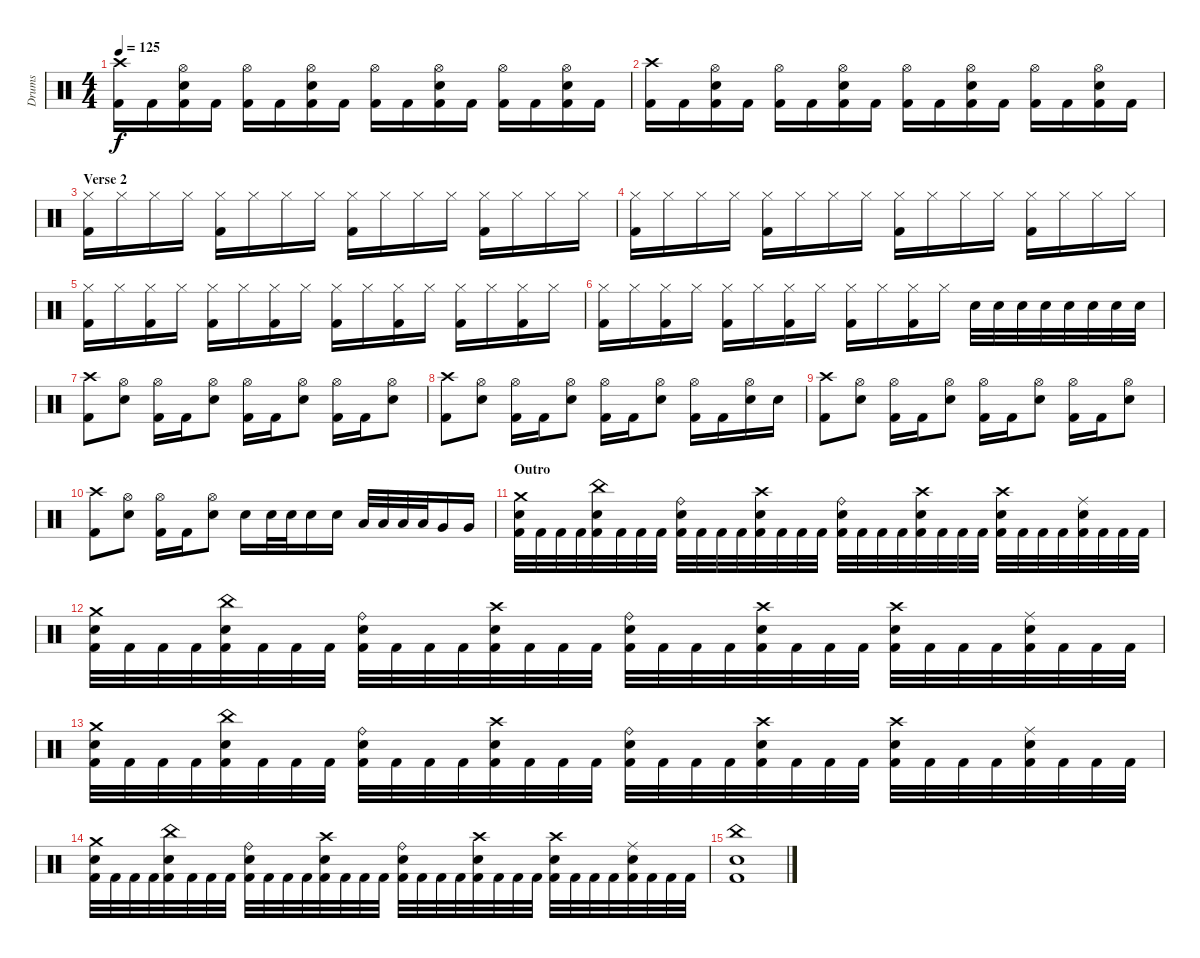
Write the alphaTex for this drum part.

\track ("Drums" "Drums") {instrument percussion}
\staff {score}
\articulation defaults
\ts (4 4)
\tempo 125
\clef neutral
\ks c
("Crash high (hit)" "Kick (hit) 2").16{dy f} "Kick (hit) 2".16 ("Hi-Hat (open)" "Electric Snare (hit)" "Kick (hit) 2").16 "Kick (hit) 2".16 ("Hi-Hat (open)" "Kick (hit) 2").16 "Kick (hit) 2".16 ("Hi-Hat (open)" "Electric Snare (hit)" "Kick (hit) 2").16 "Kick (hit) 2".16 ("Hi-Hat (open)" "Kick (hit) 2").16 "Kick (hit) 2".16 ("Hi-Hat (open)" "Electric Snare (hit)" "Kick (hit) 2").16 "Kick (hit) 2".16 ("Hi-Hat (open)" "Kick (hit) 2").16 "Kick (hit) 2".16 ("Hi-Hat (open)" "Electric Snare (hit)" "Kick (hit) 2").16 "Kick (hit) 2".16 |
("Crash high (hit)" "Kick (hit) 2").16 "Kick (hit) 2".16 ("Hi-Hat (open)" "Electric Snare (hit)" "Kick (hit) 2").16 "Kick (hit) 2".16 ("Hi-Hat (open)" "Kick (hit) 2").16 "Kick (hit) 2".16 ("Hi-Hat (open)" "Electric Snare (hit)" "Kick (hit) 2").16 "Kick (hit) 2".16 ("Hi-Hat (open)" "Kick (hit) 2").16 "Kick (hit) 2".16 ("Hi-Hat (open)" "Electric Snare (hit)" "Kick (hit) 2").16 "Kick (hit) 2".16 ("Hi-Hat (open)" "Kick (hit) 2").16 "Kick (hit) 2".16 ("Hi-Hat (open)" "Electric Snare (hit)" "Kick (hit) 2").16 "Kick (hit) 2".16 |
\section ("" "Verse 2")
("Hi-Hat (closed)" "Kick (hit) 2").16 "Hi-Hat (closed)".16 "Hi-Hat (closed)".16 "Hi-Hat (closed)".16 ("Hi-Hat (closed)" "Kick (hit) 2").16 "Hi-Hat (closed)".16 "Hi-Hat (closed)".16 "Hi-Hat (closed)".16 ("Hi-Hat (closed)" "Kick (hit) 2").16 "Hi-Hat (closed)".16 "Hi-Hat (closed)".16 "Hi-Hat (closed)".16 ("Hi-Hat (closed)" "Kick (hit) 2").16 "Hi-Hat (closed)".16 "Hi-Hat (closed)".16 "Hi-Hat (closed)".16 |
("Hi-Hat (closed)" "Kick (hit) 2").16 "Hi-Hat (closed)".16 "Hi-Hat (closed)".16 "Hi-Hat (closed)".16 ("Hi-Hat (closed)" "Kick (hit) 2").16 "Hi-Hat (closed)".16 "Hi-Hat (closed)".16 "Hi-Hat (closed)".16 ("Hi-Hat (closed)" "Kick (hit) 2").16 "Hi-Hat (closed)".16 "Hi-Hat (closed)".16 "Hi-Hat (closed)".16 ("Hi-Hat (closed)" "Kick (hit) 2").16 "Hi-Hat (closed)".16 "Hi-Hat (closed)".16 "Hi-Hat (closed)".16 |
("Hi-Hat (closed)" "Kick (hit) 2").16 "Hi-Hat (closed)".16 ("Hi-Hat (closed)" "Kick (hit) 2").16 "Hi-Hat (closed)".16 ("Hi-Hat (closed)" "Kick (hit) 2").16 "Hi-Hat (closed)".16 ("Hi-Hat (closed)" "Kick (hit) 2").16 "Hi-Hat (closed)".16 ("Hi-Hat (closed)" "Kick (hit) 2").16 "Hi-Hat (closed)".16 ("Hi-Hat (closed)" "Kick (hit) 2").16 "Hi-Hat (closed)".16 ("Hi-Hat (closed)" "Kick (hit) 2").16 "Hi-Hat (closed)".16 ("Hi-Hat (closed)" "Kick (hit) 2").16 "Hi-Hat (closed)".16 |
("Hi-Hat (closed)" "Kick (hit) 2").16 "Hi-Hat (closed)".16 ("Hi-Hat (closed)" "Kick (hit) 2").16 "Hi-Hat (closed)".16 ("Hi-Hat (closed)" "Kick (hit) 2").16 "Hi-Hat (closed)".16 ("Hi-Hat (closed)" "Kick (hit) 2").16 "Hi-Hat (closed)".16 ("Hi-Hat (closed)" "Kick (hit) 2").16 "Hi-Hat (closed)".16 ("Hi-Hat (closed)" "Kick (hit) 2").16 "Hi-Hat (closed)".16 "Electric Snare (hit)".32 "Electric Snare (hit)".32 "Electric Snare (hit)".32 "Electric Snare (hit)".32 "Electric Snare (hit)".32 "Electric Snare (hit)".32 "Electric Snare (hit)".32 "Electric Snare (hit)".32 |
("Crash high (hit)" "Kick (hit) 2").8 ("Hi-Hat (open)" "Electric Snare (hit)").8 ("Hi-Hat (open)" "Kick (hit) 2").16 "Kick (hit) 2".16 ("Hi-Hat (open)" "Electric Snare (hit)").8 ("Hi-Hat (open)" "Kick (hit) 2").16 "Kick (hit) 2".16 ("Hi-Hat (open)" "Electric Snare (hit)").8 ("Hi-Hat (open)" "Kick (hit) 2").16 "Kick (hit) 2".16 ("Hi-Hat (open)" "Electric Snare (hit)").8 |
("Crash high (hit)" "Kick (hit) 2").8 ("Hi-Hat (open)" "Electric Snare (hit)").8 ("Hi-Hat (open)" "Kick (hit) 2").16 "Kick (hit) 2".16 ("Hi-Hat (open)" "Electric Snare (hit)").8 ("Hi-Hat (open)" "Kick (hit) 2").16 "Kick (hit) 2".16 ("Hi-Hat (open)" "Electric Snare (hit)").8 ("Hi-Hat (open)" "Kick (hit) 2").16 "Kick (hit) 2".16 ("Hi-Hat (open)" "Electric Snare (hit)").16 "Electric Snare (hit)".16 |
("Crash high (hit)" "Kick (hit) 2").8 ("Hi-Hat (open)" "Electric Snare (hit)").8 ("Hi-Hat (open)" "Kick (hit) 2").16 "Kick (hit) 2".16 ("Hi-Hat (open)" "Electric Snare (hit)").8 ("Hi-Hat (open)" "Kick (hit) 2").16 "Kick (hit) 2".16 ("Hi-Hat (open)" "Electric Snare (hit)").8 ("Hi-Hat (open)" "Kick (hit) 2").16 "Kick (hit) 2".16 ("Hi-Hat (open)" "Electric Snare (hit)").8 |
("Crash high (hit)" "Kick (hit) 2").8 ("Hi-Hat (open)" "Electric Snare (hit)").8 ("Hi-Hat (open)" "Kick (hit) 2").16 "Kick (hit) 2".16 ("Hi-Hat (open)" "Electric Snare (hit)").8 "Electric Snare (hit)".16 "Electric Snare (hit)".32 "Electric Snare (hit)".32 "Electric Snare (hit)".16 "Electric Snare (hit)".16 "Low Tom (hit)".32 "Low Tom (hit)".32 "Low Tom (hit)".32 "Low Tom (hit)".32 "Very Low Tom (hit)".16 "Very Low Tom (hit)".16 |
\section ("" "Outro")
("Crash medium (hit)" "Electric Snare (hit)" "Kick (hit) 2").32 "Kick (hit) 2".32 "Kick (hit) 2".32 "Kick (hit) 2".32 ("China (hit)" "Electric Snare (hit)" "Kick (hit) 2").32 "Kick (hit) 2".32 "Kick (hit) 2".32 "Kick (hit) 2".32 ("Ride (bell)" "Electric Snare (hit)" "Kick (hit) 2").32 "Kick (hit) 2".32 "Kick (hit) 2".32 "Kick (hit) 2".32 ("Crash high (hit)" "Electric Snare (hit)" "Kick (hit) 2").32 "Kick (hit) 2".32 "Kick (hit) 2".32 "Kick (hit) 2".32 ("Ride (bell)" "Electric Snare (hit)" "Kick (hit) 2").32 "Kick (hit) 2".32 "Kick (hit) 2".32 "Kick (hit) 2".32 ("Crash high (hit)" "Electric Snare (hit)" "Kick (hit) 2").32 "Kick (hit) 2".32 "Kick (hit) 2".32 "Kick (hit) 2".32 ("Crash high (hit)" "Electric Snare (hit)" "Kick (hit) 2").32 "Kick (hit) 2".32 "Kick (hit) 2".32 "Kick (hit) 2".32 ("Ride (middle)" "Electric Snare (hit)" "Kick (hit) 2").32 "Kick (hit) 2".32 "Kick (hit) 2".32 "Kick (hit) 2".32 |
("Crash medium (hit)" "Electric Snare (hit)" "Kick (hit) 2").32 "Kick (hit) 2".32 "Kick (hit) 2".32 "Kick (hit) 2".32 ("China (hit)" "Electric Snare (hit)" "Kick (hit) 2").32 "Kick (hit) 2".32 "Kick (hit) 2".32 "Kick (hit) 2".32 ("Ride (bell)" "Electric Snare (hit)" "Kick (hit) 2").32 "Kick (hit) 2".32 "Kick (hit) 2".32 "Kick (hit) 2".32 ("Crash high (hit)" "Electric Snare (hit)" "Kick (hit) 2").32 "Kick (hit) 2".32 "Kick (hit) 2".32 "Kick (hit) 2".32 ("Ride (bell)" "Electric Snare (hit)" "Kick (hit) 2").32 "Kick (hit) 2".32 "Kick (hit) 2".32 "Kick (hit) 2".32 ("Crash high (hit)" "Electric Snare (hit)" "Kick (hit) 2").32 "Kick (hit) 2".32 "Kick (hit) 2".32 "Kick (hit) 2".32 ("Crash high (hit)" "Electric Snare (hit)" "Kick (hit) 2").32 "Kick (hit) 2".32 "Kick (hit) 2".32 "Kick (hit) 2".32 ("Ride (middle)" "Electric Snare (hit)" "Kick (hit) 2").32 "Kick (hit) 2".32 "Kick (hit) 2".32 "Kick (hit) 2".32 |
("Crash medium (hit)" "Electric Snare (hit)" "Kick (hit) 2").32 "Kick (hit) 2".32 "Kick (hit) 2".32 "Kick (hit) 2".32 ("China (hit)" "Electric Snare (hit)" "Kick (hit) 2").32 "Kick (hit) 2".32 "Kick (hit) 2".32 "Kick (hit) 2".32 ("Ride (bell)" "Electric Snare (hit)" "Kick (hit) 2").32 "Kick (hit) 2".32 "Kick (hit) 2".32 "Kick (hit) 2".32 ("Crash high (hit)" "Electric Snare (hit)" "Kick (hit) 2").32 "Kick (hit) 2".32 "Kick (hit) 2".32 "Kick (hit) 2".32 ("Ride (bell)" "Electric Snare (hit)" "Kick (hit) 2").32 "Kick (hit) 2".32 "Kick (hit) 2".32 "Kick (hit) 2".32 ("Crash high (hit)" "Electric Snare (hit)" "Kick (hit) 2").32 "Kick (hit) 2".32 "Kick (hit) 2".32 "Kick (hit) 2".32 ("Crash high (hit)" "Electric Snare (hit)" "Kick (hit) 2").32 "Kick (hit) 2".32 "Kick (hit) 2".32 "Kick (hit) 2".32 ("Ride (middle)" "Electric Snare (hit)" "Kick (hit) 2").32 "Kick (hit) 2".32 "Kick (hit) 2".32 "Kick (hit) 2".32 |
("Crash medium (hit)" "Electric Snare (hit)" "Kick (hit) 2").32 "Kick (hit) 2".32 "Kick (hit) 2".32 "Kick (hit) 2".32 ("China (hit)" "Electric Snare (hit)" "Kick (hit) 2").32 "Kick (hit) 2".32 "Kick (hit) 2".32 "Kick (hit) 2".32 ("Ride (bell)" "Electric Snare (hit)" "Kick (hit) 2").32 "Kick (hit) 2".32 "Kick (hit) 2".32 "Kick (hit) 2".32 ("Crash high (hit)" "Electric Snare (hit)" "Kick (hit) 2").32 "Kick (hit) 2".32 "Kick (hit) 2".32 "Kick (hit) 2".32 ("Ride (bell)" "Electric Snare (hit)" "Kick (hit) 2").32 "Kick (hit) 2".32 "Kick (hit) 2".32 "Kick (hit) 2".32 ("Crash high (hit)" "Electric Snare (hit)" "Kick (hit) 2").32 "Kick (hit) 2".32 "Kick (hit) 2".32 "Kick (hit) 2".32 ("Crash high (hit)" "Electric Snare (hit)" "Kick (hit) 2").32 "Kick (hit) 2".32 "Kick (hit) 2".32 "Kick (hit) 2".32 ("Ride (middle)" "Electric Snare (hit)" "Kick (hit) 2").32 "Kick (hit) 2".32 "Kick (hit) 2".32 "Kick (hit) 2".32 |
("China (hit)" "Electric Snare (hit)" "Kick (hit) 2").1
